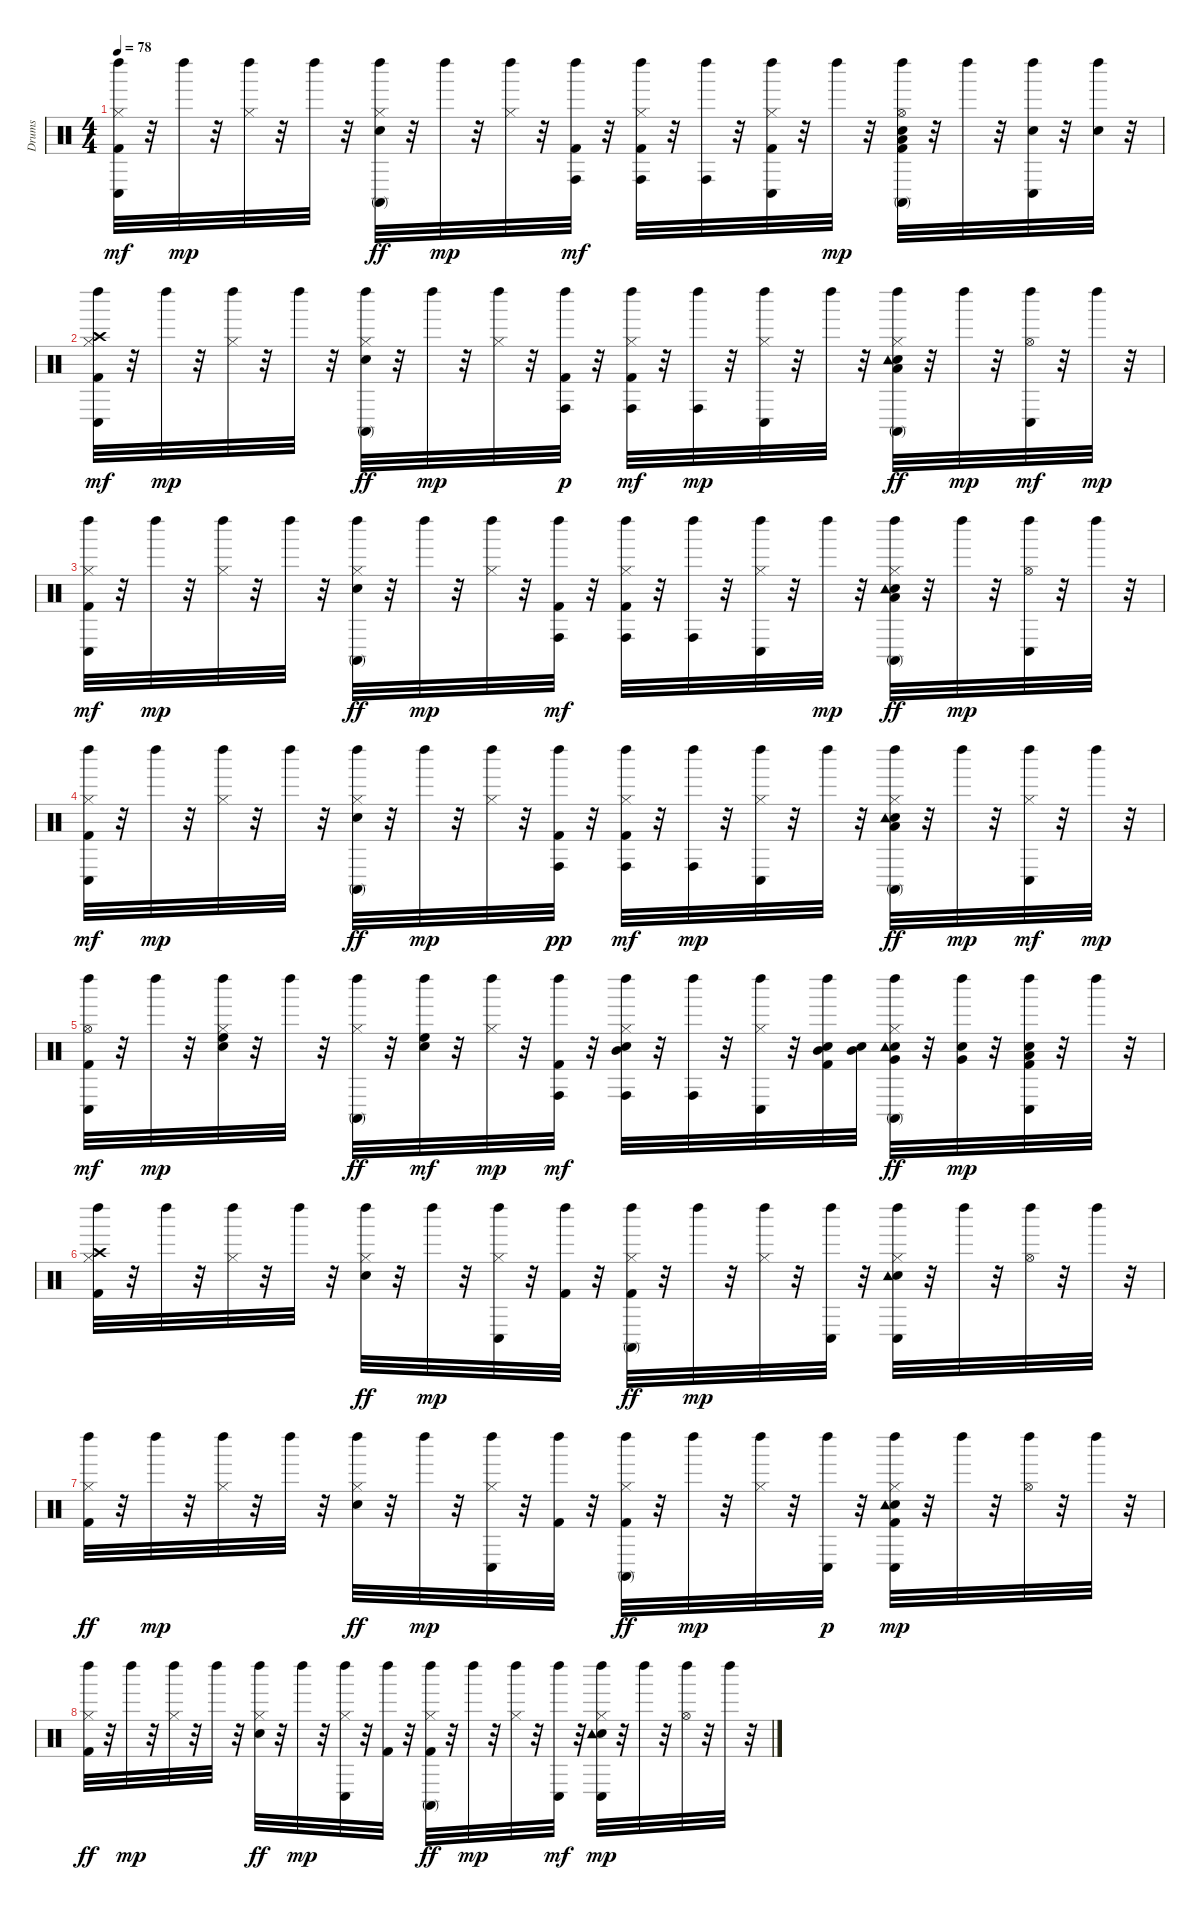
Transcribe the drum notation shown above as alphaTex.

\track ("Drums               " "Drums     ") {instrument percussion}
\staff {score}
\articulation defaults
\ts (4 4)
\tempo 78
\clef neutral
\ks c
("Kick (hit) 2" "Hi-Hat (closed)" "Left Maraca (hit)" "Conga low (hit)").32{dy mf} r.32 "Left Maraca (hit)".32{dy mp} r.32 ("Hi-Hat (closed)" "Left Maraca (hit)").32 r.32 "Left Maraca (hit)".32 r.32 ("Snare (hit) 2" "Hi-Hat (closed)" "Left Maraca (hit)" "Conga high (mute)").32{dy ff} r.32 "Left Maraca (hit)".32{dy mp} r.32 ("Hi-Hat (closed)" "Left Maraca (hit)").32 r.32 ("Kick (hit) 2" "Left Maraca (hit)" "Conga high (hit)").32{dy mf} r.32 ("Kick (hit) 2" "Hi-Hat (closed)" "Left Maraca (hit)" "Conga high (hit)").32 r.32 ("Left Maraca (hit)" "Conga high (hit)").32 r.32 ("Kick (hit) 2" "Hi-Hat (closed)" "Left Maraca (hit)" "Conga low (hit)").32 r.32 "Left Maraca (hit)".32{dy mp} r.32 ("Kick (hit) 2" "Snare (hit) 2" "Hi-Hat (open)" "Left Maraca (hit)" "Conga high (mute)" "Low Floor Tom (hit)").32 r.32 "Left Maraca (hit)".32 r.32 ("Snare (hit) 2" "Left Maraca (hit)" "Conga low (hit)").32 r.32 ("Snare (hit) 2" "Left Maraca (hit)").32 r.32 |
("Kick (hit) 2" "Hi-Hat (closed)" "Left Maraca (hit)" "Crash high (hit)" "Conga low (hit)").32{dy mf} r.32 "Left Maraca (hit)".32{dy mp} r.32 ("Hi-Hat (closed)" "Left Maraca (hit)").32 r.32 "Left Maraca (hit)".32 r.32 ("Snare (hit) 2" "Hi-Hat (closed)" "Left Maraca (hit)" "Conga high (mute)").32{dy ff} r.32 "Left Maraca (hit)".32{dy mp} r.32 ("Hi-Hat (closed)" "Left Maraca (hit)").32 r.32 ("Kick (hit) 2" "Left Maraca (hit)" "Conga high (hit)").32{dy p} r.32 ("Kick (hit) 2" "Hi-Hat (closed)" "Left Maraca (hit)" "Conga high (hit)").32{dy mf} r.32 ("Left Maraca (hit)" "Conga high (hit)").32{dy mp} r.32 ("Hi-Hat (closed)" "Left Maraca (hit)" "Conga low (hit)").32 r.32 "Left Maraca (hit)".32 r.32 ("Snare (hit) 2" "Hi-Hat (closed)" "Left Maraca (hit)" "Low Floor Tom (hit)" "Conga high (mute)" "Tambourine (hit)").32{dy ff} r.32 "Left Maraca (hit)".32{dy mp} r.32 ("Hi-Hat (open)" "Left Maraca (hit)" "Conga low (hit)").32{dy mf} r.32 "Left Maraca (hit)".32{dy mp} r.32 |
("Kick (hit) 2" "Hi-Hat (closed)" "Left Maraca (hit)" "Conga low (hit)").32{dy mf} r.32 "Left Maraca (hit)".32{dy mp} r.32 ("Hi-Hat (closed)" "Left Maraca (hit)").32 r.32 "Left Maraca (hit)".32 r.32 ("Snare (hit) 2" "Hi-Hat (closed)" "Left Maraca (hit)" "Conga high (mute)").32{dy ff} r.32 "Left Maraca (hit)".32{dy mp} r.32 ("Hi-Hat (closed)" "Left Maraca (hit)").32 r.32 ("Kick (hit) 2" "Left Maraca (hit)" "Conga high (hit)").32{dy mf} r.32 ("Kick (hit) 2" "Hi-Hat (closed)" "Left Maraca (hit)" "Conga high (hit)").32 r.32 ("Left Maraca (hit)" "Conga high (hit)").32 r.32 ("Hi-Hat (closed)" "Left Maraca (hit)" "Conga low (hit)").32 r.32 "Left Maraca (hit)".32{dy mp} r.32 ("Snare (hit) 2" "Hi-Hat (closed)" "Left Maraca (hit)" "Low Floor Tom (hit)" "Conga high (mute)" "Tambourine (hit)").32{dy ff} r.32 "Left Maraca (hit)".32{dy mp} r.32 ("Hi-Hat (open)" "Left Maraca (hit)" "Conga low (hit)").32 r.32 "Left Maraca (hit)".32 r.32 |
("Kick (hit) 2" "Hi-Hat (closed)" "Left Maraca (hit)" "Conga low (hit)").32{dy mf} r.32 "Left Maraca (hit)".32{dy mp} r.32 ("Hi-Hat (closed)" "Left Maraca (hit)").32 r.32 "Left Maraca (hit)".32 r.32 ("Snare (hit) 2" "Hi-Hat (closed)" "Left Maraca (hit)" "Conga high (mute)").32{dy ff} r.32 "Left Maraca (hit)".32{dy mp} r.32 ("Hi-Hat (closed)" "Left Maraca (hit)").32 r.32 ("Kick (hit) 2" "Left Maraca (hit)" "Conga high (hit)").32{dy pp} r.32 ("Kick (hit) 2" "Hi-Hat (closed)" "Left Maraca (hit)" "Conga high (hit)").32{dy mf} r.32 ("Left Maraca (hit)" "Conga high (hit)").32{dy mp} r.32 ("Hi-Hat (closed)" "Left Maraca (hit)" "Conga low (hit)").32 r.32 "Left Maraca (hit)".32 r.32 ("Snare (hit) 2" "Hi-Hat (closed)" "Left Maraca (hit)" "Conga high (mute)" "Low Floor Tom (hit)" "Tambourine (hit)").32{dy ff} r.32 "Left Maraca (hit)".32{dy mp} r.32 ("Hi-Hat (closed)" "Left Maraca (hit)" "Conga low (hit)").32{dy mf} r.32 "Left Maraca (hit)".32{dy mp} r.32 |
("Kick (hit) 2" "Hi-Hat (open)" "Left Maraca (hit)" "Conga low (hit)").32{dy mf} r.32 "Left Maraca (hit)".32{dy mp} r.32 ("Snare (hit) 2" "Hi-Hat (closed)" "Left Maraca (hit)" "High Floor Tom (hit)").32 r.32 "Left Maraca (hit)".32 r.32 ("Hi-Hat (closed)" "Left Maraca (hit)" "Conga high (mute)").32{dy ff} r.32 ("Left Maraca (hit)" "High Floor Tom (hit)" "Snare (hit) 2").32{dy mf} r.32 ("Hi-Hat (closed)" "Left Maraca (hit)").32{dy mp} r.32 ("Kick (hit) 2" "Left Maraca (hit)" "Conga high (hit)").32{dy mf} r.32 ("Snare (hit) 2" "Hi-Hat (closed)" "Left Maraca (hit)" "Mid Tom (hit)" "Conga high (hit)").32 r.32 ("Left Maraca (hit)" "Conga high (hit)").32 r.32 ("Hi-Hat (closed)" "Left Maraca (hit)" "Conga low (hit)").32 r.32 ("Kick (hit) 2" "Left Maraca (hit)" "Mid Tom (hit)" "Snare (hit) 2").32 ("Snare (hit) 2" "Mid Tom (hit)").32 ("Snare (hit) 2" "Hi-Hat (closed)" "Left Maraca (hit)" "Conga high (mute)" "Very Low Tom (hit)" "Tambourine (hit)").32{dy ff} r.32 ("Snare (hit) 2" "Left Maraca (hit)" "Very Low Tom (hit)").32{dy mp} r.32 ("Kick (hit) 2" "Snare (hit) 2" "Left Maraca (hit)" "Low Floor Tom (hit)" "Conga low (hit)").32 r.32 "Left Maraca (hit)".32 r.32 |
("Kick (hit) 2" "Hi-Hat (closed)" "Left Maraca (hit)" "Crash high (hit)").32 r.32 "Left Maraca (hit)".32 r.32 ("Hi-Hat (closed)" "Left Maraca (hit)").32 r.32 "Left Maraca (hit)".32 r.32 ("Snare (hit) 2" "Hi-Hat (closed)" "Left Maraca (hit)").32{dy ff} r.32 "Left Maraca (hit)".32{dy mp} r.32 ("Hi-Hat (closed)" "Left Maraca (hit)" "Conga low (hit)").32 r.32 ("Kick (hit) 2" "Left Maraca (hit)").32 r.32 ("Kick (hit) 2" "Hi-Hat (closed)" "Left Maraca (hit)" "Conga high (mute)").32{dy ff} r.32 "Left Maraca (hit)".32{dy mp} r.32 ("Hi-Hat (closed)" "Left Maraca (hit)").32 r.32 ("Left Maraca (hit)" "Conga low (hit)").32 r.32 ("Snare (hit) 2" "Hi-Hat (closed)" "Left Maraca (hit)" "Tambourine (hit)" "Conga low (hit)").32 r.32 "Left Maraca (hit)".32 r.32 ("Hi-Hat (open)" "Left Maraca (hit)").32 r.32 "Left Maraca (hit)".32 r.32 |
("Kick (hit) 2" "Hi-Hat (closed)" "Left Maraca (hit)").32{dy ff} r.32 "Left Maraca (hit)".32{dy mp} r.32 ("Hi-Hat (closed)" "Left Maraca (hit)").32 r.32 "Left Maraca (hit)".32 r.32 ("Snare (hit) 2" "Hi-Hat (closed)" "Left Maraca (hit)").32{dy ff} r.32 "Left Maraca (hit)".32{dy mp} r.32 ("Hi-Hat (closed)" "Left Maraca (hit)" "Conga low (hit)").32 r.32 ("Kick (hit) 2" "Left Maraca (hit)").32 r.32 ("Kick (hit) 2" "Hi-Hat (closed)" "Left Maraca (hit)" "Conga high (mute)").32{dy ff} r.32 "Left Maraca (hit)".32{dy mp} r.32 ("Hi-Hat (closed)" "Left Maraca (hit)").32 r.32 ("Left Maraca (hit)" "Conga low (hit)").32{dy p} r.32 ("Kick (hit) 2" "Snare (hit) 2" "Hi-Hat (closed)" "Left Maraca (hit)" "Tambourine (hit)" "Conga low (hit)").32{dy mp} r.32 "Left Maraca (hit)".32 r.32 ("Hi-Hat (open)" "Left Maraca (hit)").32 r.32 "Left Maraca (hit)".32 r.32 |
("Kick (hit) 2" "Hi-Hat (closed)" "Left Maraca (hit)").32{dy ff} r.32 "Left Maraca (hit)".32{dy mp} r.32 ("Hi-Hat (closed)" "Left Maraca (hit)").32 r.32 "Left Maraca (hit)".32 r.32 ("Snare (hit) 2" "Hi-Hat (closed)" "Left Maraca (hit)").32{dy ff} r.32 "Left Maraca (hit)".32{dy mp} r.32 ("Hi-Hat (closed)" "Left Maraca (hit)" "Conga low (hit)").32 r.32 ("Kick (hit) 2" "Left Maraca (hit)").32 r.32 ("Kick (hit) 2" "Hi-Hat (closed)" "Left Maraca (hit)" "Conga high (mute)").32{dy ff} r.32 "Left Maraca (hit)".32{dy mp} r.32 ("Hi-Hat (closed)" "Left Maraca (hit)").32 r.32 ("Left Maraca (hit)" "Conga low (hit)").32{dy mf} r.32 ("Snare (hit) 2" "Hi-Hat (closed)" "Left Maraca (hit)" "Tambourine (hit)" "Conga low (hit)").32{dy mp} r.32 "Left Maraca (hit)".32 r.32 ("Hi-Hat (open)" "Left Maraca (hit)").32 r.32 "Left Maraca (hit)".32 r.32
